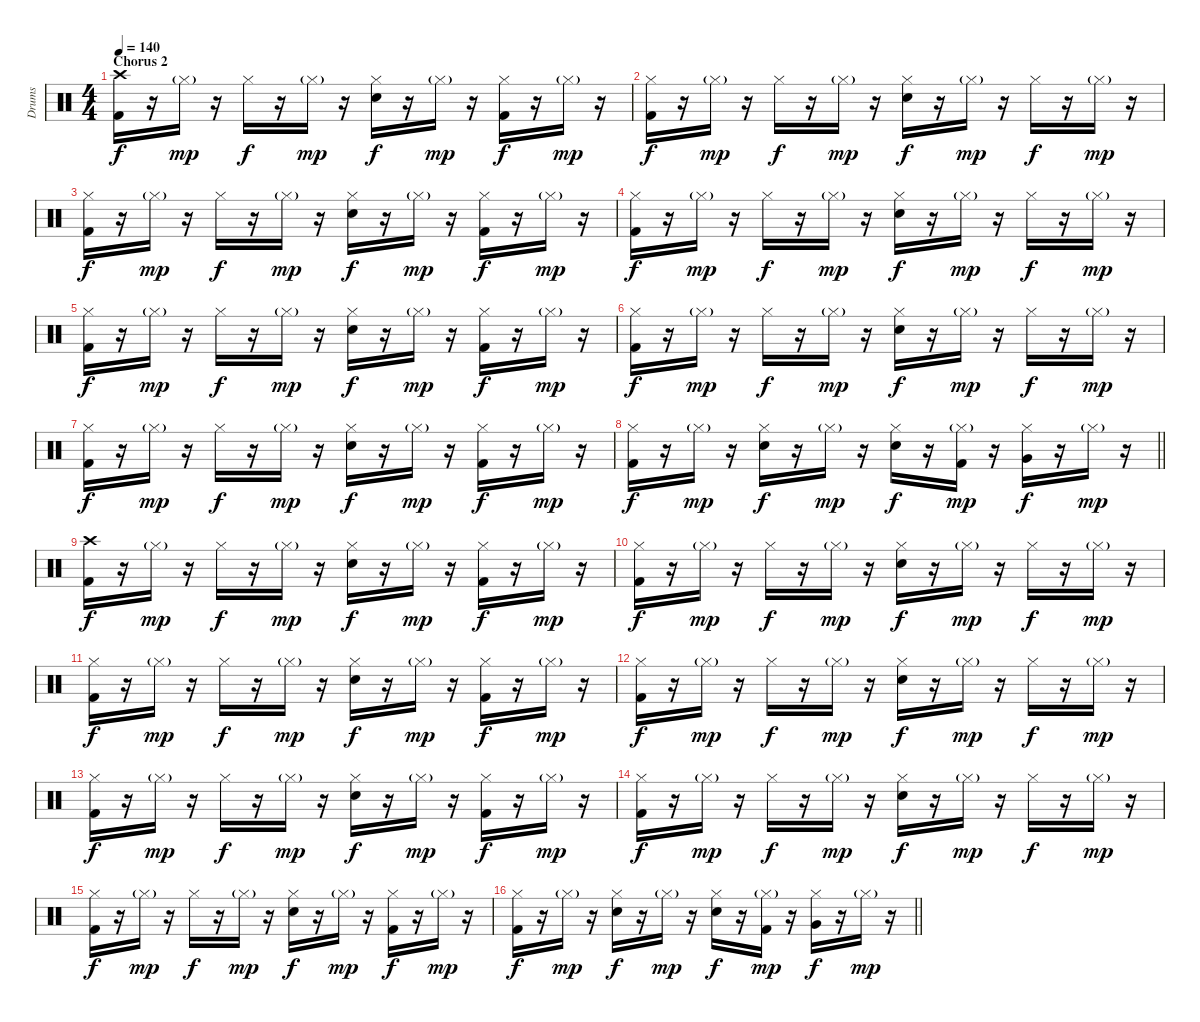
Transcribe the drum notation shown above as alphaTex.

\track ("Drums" "Drums") {instrument percussion}
\staff {score}
\articulation defaults
\ts (4 4)
\section ("" "Chorus 2")
\tempo 140
\clef neutral
\ks c
("Crash high (hit)" "Kick (hit) 2").16{dy f} r.16 "Hi-Hat (closed)"{g}.16{dy mp} r.16 "Hi-Hat (closed)".16{dy f} r.16 "Hi-Hat (closed)"{g}.16{dy mp} r.16 ("Hi-Hat (closed)" "Snare (hit) 2").16{dy f} r.16 "Hi-Hat (closed)"{g}.16{dy mp} r.16 ("Hi-Hat (closed)" "Kick (hit) 2").16{dy f} r.16 "Hi-Hat (closed)"{g}.16{dy mp} r.16 |
("Hi-Hat (closed)" "Kick (hit) 2").16{dy f} r.16 "Hi-Hat (closed)"{g}.16{dy mp} r.16 "Hi-Hat (closed)".16{dy f} r.16 "Hi-Hat (closed)"{g}.16{dy mp} r.16 ("Hi-Hat (closed)" "Snare (hit) 2").16{dy f} r.16 "Hi-Hat (closed)"{g}.16{dy mp} r.16 "Hi-Hat (closed)".16{dy f} r.16 "Hi-Hat (closed)"{g}.16{dy mp} r.16 |
("Hi-Hat (closed)" "Kick (hit) 2").16{dy f} r.16 "Hi-Hat (closed)"{g}.16{dy mp} r.16 "Hi-Hat (closed)".16{dy f} r.16 "Hi-Hat (closed)"{g}.16{dy mp} r.16 ("Hi-Hat (closed)" "Snare (hit) 2").16{dy f} r.16 "Hi-Hat (closed)"{g}.16{dy mp} r.16 ("Hi-Hat (closed)" "Kick (hit) 2").16{dy f} r.16 "Hi-Hat (closed)"{g}.16{dy mp} r.16 |
("Hi-Hat (closed)" "Kick (hit) 2").16{dy f} r.16 "Hi-Hat (closed)"{g}.16{dy mp} r.16 "Hi-Hat (closed)".16{dy f} r.16 "Hi-Hat (closed)"{g}.16{dy mp} r.16 ("Hi-Hat (closed)" "Snare (hit) 2").16{dy f} r.16 "Hi-Hat (closed)"{g}.16{dy mp} r.16 "Hi-Hat (closed)".16{dy f} r.16 "Hi-Hat (closed)"{g}.16{dy mp} r.16 |
("Hi-Hat (closed)" "Kick (hit) 2").16{dy f} r.16 "Hi-Hat (closed)"{g}.16{dy mp} r.16 "Hi-Hat (closed)".16{dy f} r.16 "Hi-Hat (closed)"{g}.16{dy mp} r.16 ("Hi-Hat (closed)" "Snare (hit) 2").16{dy f} r.16 "Hi-Hat (closed)"{g}.16{dy mp} r.16 ("Hi-Hat (closed)" "Kick (hit) 2").16{dy f} r.16 "Hi-Hat (closed)"{g}.16{dy mp} r.16 |
("Hi-Hat (closed)" "Kick (hit) 2").16{dy f} r.16 "Hi-Hat (closed)"{g}.16{dy mp} r.16 "Hi-Hat (closed)".16{dy f} r.16 "Hi-Hat (closed)"{g}.16{dy mp} r.16 ("Hi-Hat (closed)" "Snare (hit) 2").16{dy f} r.16 "Hi-Hat (closed)"{g}.16{dy mp} r.16 "Hi-Hat (closed)".16{dy f} r.16 "Hi-Hat (closed)"{g}.16{dy mp} r.16 |
("Hi-Hat (closed)" "Kick (hit) 2").16{dy f} r.16 "Hi-Hat (closed)"{g}.16{dy mp} r.16 "Hi-Hat (closed)".16{dy f} r.16 "Hi-Hat (closed)"{g}.16{dy mp} r.16 ("Hi-Hat (closed)" "Snare (hit) 2").16{dy f} r.16 "Hi-Hat (closed)"{g}.16{dy mp} r.16 ("Hi-Hat (closed)" "Kick (hit) 2").16{dy f} r.16 "Hi-Hat (closed)"{g}.16{dy mp} r.16 |
\barLineRight lightlight
("Hi-Hat (closed)" "Kick (hit) 2").16{dy f} r.16 "Hi-Hat (closed)"{g}.16{dy mp} r.16 ("Hi-Hat (closed)" "Snare (hit) 2").16{dy f} r.16 "Hi-Hat (closed)"{g}.16{dy mp} r.16 ("Hi-Hat (closed)" "Snare (hit) 2").16{dy f} r.16 ("Hi-Hat (closed)"{g} "Kick (hit) 2").16{dy mp} r.16 ("Hi-Hat (closed)" "Very Low Tom (hit)").16{dy f} r.16 "Hi-Hat (closed)"{g}.16{dy mp} r.16 |
("Crash high (hit)" "Kick (hit) 2").16{dy f} r.16 "Hi-Hat (closed)"{g}.16{dy mp} r.16 "Hi-Hat (closed)".16{dy f} r.16 "Hi-Hat (closed)"{g}.16{dy mp} r.16 ("Hi-Hat (closed)" "Snare (hit) 2").16{dy f} r.16 "Hi-Hat (closed)"{g}.16{dy mp} r.16 ("Hi-Hat (closed)" "Kick (hit) 2").16{dy f} r.16 "Hi-Hat (closed)"{g}.16{dy mp} r.16 |
("Hi-Hat (closed)" "Kick (hit) 2").16{dy f} r.16 "Hi-Hat (closed)"{g}.16{dy mp} r.16 "Hi-Hat (closed)".16{dy f} r.16 "Hi-Hat (closed)"{g}.16{dy mp} r.16 ("Hi-Hat (closed)" "Snare (hit) 2").16{dy f} r.16 "Hi-Hat (closed)"{g}.16{dy mp} r.16 "Hi-Hat (closed)".16{dy f} r.16 "Hi-Hat (closed)"{g}.16{dy mp} r.16 |
("Hi-Hat (closed)" "Kick (hit) 2").16{dy f} r.16 "Hi-Hat (closed)"{g}.16{dy mp} r.16 "Hi-Hat (closed)".16{dy f} r.16 "Hi-Hat (closed)"{g}.16{dy mp} r.16 ("Hi-Hat (closed)" "Snare (hit) 2").16{dy f} r.16 "Hi-Hat (closed)"{g}.16{dy mp} r.16 ("Hi-Hat (closed)" "Kick (hit) 2").16{dy f} r.16 "Hi-Hat (closed)"{g}.16{dy mp} r.16 |
("Hi-Hat (closed)" "Kick (hit) 2").16{dy f} r.16 "Hi-Hat (closed)"{g}.16{dy mp} r.16 "Hi-Hat (closed)".16{dy f} r.16 "Hi-Hat (closed)"{g}.16{dy mp} r.16 ("Hi-Hat (closed)" "Snare (hit) 2").16{dy f} r.16 "Hi-Hat (closed)"{g}.16{dy mp} r.16 "Hi-Hat (closed)".16{dy f} r.16 "Hi-Hat (closed)"{g}.16{dy mp} r.16 |
("Hi-Hat (closed)" "Kick (hit) 2").16{dy f} r.16 "Hi-Hat (closed)"{g}.16{dy mp} r.16 "Hi-Hat (closed)".16{dy f} r.16 "Hi-Hat (closed)"{g}.16{dy mp} r.16 ("Hi-Hat (closed)" "Snare (hit) 2").16{dy f} r.16 "Hi-Hat (closed)"{g}.16{dy mp} r.16 ("Hi-Hat (closed)" "Kick (hit) 2").16{dy f} r.16 "Hi-Hat (closed)"{g}.16{dy mp} r.16 |
("Hi-Hat (closed)" "Kick (hit) 2").16{dy f} r.16 "Hi-Hat (closed)"{g}.16{dy mp} r.16 "Hi-Hat (closed)".16{dy f} r.16 "Hi-Hat (closed)"{g}.16{dy mp} r.16 ("Hi-Hat (closed)" "Snare (hit) 2").16{dy f} r.16 "Hi-Hat (closed)"{g}.16{dy mp} r.16 "Hi-Hat (closed)".16{dy f} r.16 "Hi-Hat (closed)"{g}.16{dy mp} r.16 |
("Hi-Hat (closed)" "Kick (hit) 2").16{dy f} r.16 "Hi-Hat (closed)"{g}.16{dy mp} r.16 "Hi-Hat (closed)".16{dy f} r.16 "Hi-Hat (closed)"{g}.16{dy mp} r.16 ("Hi-Hat (closed)" "Snare (hit) 2").16{dy f} r.16 "Hi-Hat (closed)"{g}.16{dy mp} r.16 ("Hi-Hat (closed)" "Kick (hit) 2").16{dy f} r.16 "Hi-Hat (closed)"{g}.16{dy mp} r.16 |
\barLineRight lightlight
("Hi-Hat (closed)" "Kick (hit) 2").16{dy f} r.16 "Hi-Hat (closed)"{g}.16{dy mp} r.16 ("Hi-Hat (closed)" "Snare (hit) 2").16{dy f} r.16 "Hi-Hat (closed)"{g}.16{dy mp} r.16 ("Hi-Hat (closed)" "Snare (hit) 2").16{dy f} r.16 ("Hi-Hat (closed)"{g} "Kick (hit) 2").16{dy mp} r.16 ("Hi-Hat (closed)" "Very Low Tom (hit)").16{dy f} r.16 "Hi-Hat (closed)"{g}.16{dy mp} r.16
